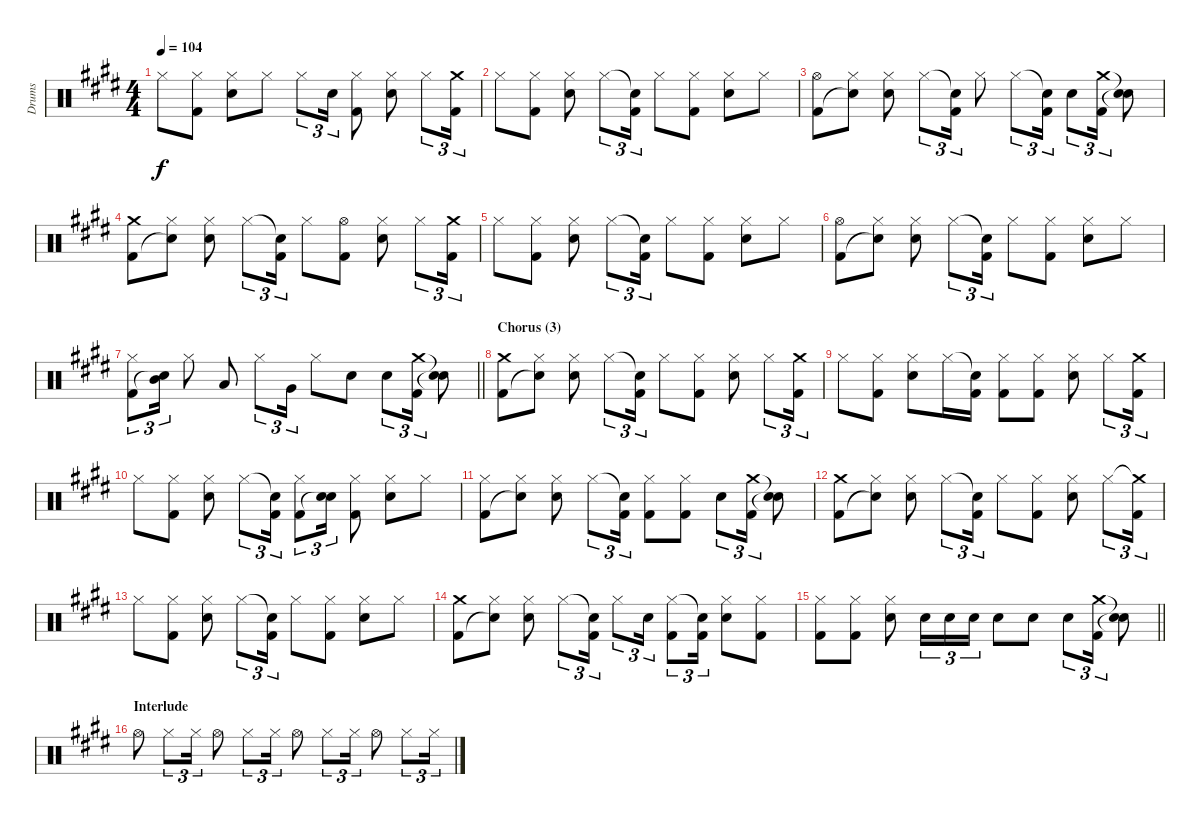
\track ("Drums" "Drums") {instrument percussion}
\staff {score}
\articulation defaults
\ts (4 4)
\tempo 104
\clef neutral
\ks c#minor "Hi-Hat (closed)".8{dy f}
("Hi-Hat (closed)" "Kick (hit) 2").8 ("Hi-Hat (closed)" "Electric Snare (hit)").8 "Hi-Hat (closed)".8 "Hi-Hat (closed)".8{tu (3 2)} "Electric Snare (hit)".16{tu (3 2)} ("Hi-Hat (closed)" "Kick (hit) 2").8 ("Hi-Hat (closed)" "Electric Snare (hit)").8 "Hi-Hat (closed)".8{tu (3 2)} ("Crash medium (hit)" "Kick (hit) 2").16{tu (3 2)} |
"Hi-Hat (closed)".8 ("Hi-Hat (closed)" "Kick (hit) 2").8 ("Hi-Hat (closed)" "Electric Snare (hit)").8 "Hi-Hat (closed)".8{tu (3 2)} ("Snare (hit)"{t} "Kick (hit) 2").16{tu (3 2)} "Hi-Hat (closed)".8 ("Hi-Hat (closed)" "Kick (hit) 2").8 ("Hi-Hat (closed)" "Electric Snare (hit)").8 "Hi-Hat (closed)".8 |
("Hi-Hat (open)" "Kick (hit) 2").8 ("Hi-Hat (closed)" "Snare (hit)"{t}).8 ("Hi-Hat (closed)" "Electric Snare (hit)").8 "Hi-Hat (closed)".8{tu (3 2)} ("Snare (hit)"{t} "Kick (hit) 2").16{tu (3 2)} "Hi-Hat (closed)".8 "Hi-Hat (closed)".8{tu (3 2)} ("Snare (hit)"{t} "Kick (hit) 2").16{tu (3 2)} "Electric Snare (hit)".8{tu (3 2)} ("Crash medium (hit)" "Kick (hit) 2").16{tu (3 2)} ("Snare (hit)"{t} "Snare (hit)"{t}).8 |
("Crash medium (hit)" "Kick (hit) 2").8 ("Hi-Hat (closed)" "Snare (hit)"{t}).8 ("Hi-Hat (closed)" "Electric Snare (hit)").8 "Hi-Hat (closed)".8{tu (3 2)} ("Snare (hit)"{t} "Kick (hit) 2").16{tu (3 2)} "Hi-Hat (closed)".8 ("Hi-Hat (open)" "Kick (hit) 2").8 ("Hi-Hat (closed)" "Electric Snare (hit)").8 "Hi-Hat (closed)".8{tu (3 2)} ("Crash medium (hit)" "Kick (hit) 2").16{tu (3 2)} |
"Hi-Hat (closed)".8 ("Hi-Hat (closed)" "Kick (hit) 2").8 ("Hi-Hat (closed)" "Electric Snare (hit)").8 "Hi-Hat (closed)".8{tu (3 2)} ("Snare (hit)"{t} "Kick (hit) 2").16{tu (3 2)} "Hi-Hat (closed)".8 ("Hi-Hat (closed)" "Kick (hit) 2").8 ("Hi-Hat (closed)" "Electric Snare (hit)").8 "Hi-Hat (closed)".8 |
("Hi-Hat (open)" "Kick (hit) 2").8 ("Hi-Hat (closed)" "Snare (hit)"{t}).8 ("Hi-Hat (closed)" "Electric Snare (hit)").8 "Hi-Hat (closed)".8{tu (3 2)} ("Snare (hit)"{t} "Kick (hit) 2").16{tu (3 2)} "Hi-Hat (closed)".8 ("Hi-Hat (closed)" "Kick (hit) 2").8 ("Hi-Hat (closed)" "Electric Snare (hit)").8 "Hi-Hat (closed)".8 |
\barLineRight lightlight
("Hi-Hat (closed)" "Kick (hit) 2").8{tu (3 2)} ("Mid Tom (hit)" "Snare (hit)"{t}).16{tu (3 2)} "Hi-Hat (closed)".8 "Low Tom (hit)".8 "Hi-Hat (closed)".8{tu (3 2)} "Very Low Tom (hit)".16{tu (3 2)} "Hi-Hat (closed)".8 "Electric Snare (hit)".8 "Electric Snare (hit)".8{tu (3 2)} ("Crash medium (hit)" "Kick (hit) 2").16{tu (3 2)} ("Snare (hit)"{t} "Snare (hit)"{t}).8 |
\section ("" "Chorus (3)")
("Crash medium (hit)" "Kick (hit) 2").8 ("Hi-Hat (closed)" "Snare (hit)"{t}).8 ("Hi-Hat (closed)" "Electric Snare (hit)").8 "Hi-Hat (closed)".8{tu (3 2)} ("Snare (hit)"{t} "Kick (hit) 2").16{tu (3 2)} "Hi-Hat (closed)".8 ("Hi-Hat (closed)" "Kick (hit) 2").8 ("Hi-Hat (closed)" "Electric Snare (hit)").8 "Hi-Hat (closed)".8{tu (3 2)} ("Crash medium (hit)" "Kick (hit) 2").16{tu (3 2)} |
"Hi-Hat (closed)".8 ("Hi-Hat (closed)" "Kick (hit) 2").8 ("Hi-Hat (closed)" "Electric Snare (hit)").8 "Hi-Hat (closed)".16 ("Snare (hit)"{t} "Kick (hit) 2").16 ("Hi-Hat (closed)" "Kick (hit) 2").8 ("Hi-Hat (closed)" "Kick (hit) 2").8 ("Hi-Hat (closed)" "Electric Snare (hit)").8 "Hi-Hat (closed)".8{tu (3 2)} ("Crash medium (hit)" "Kick (hit) 2").16{tu (3 2)} |
"Hi-Hat (closed)".8 ("Hi-Hat (closed)" "Kick (hit) 2").8 ("Hi-Hat (closed)" "Electric Snare (hit)").8 "Hi-Hat (closed)".8{tu (3 2)} ("Snare (hit)"{t} "Kick (hit) 2").16{tu (3 2)} ("Hi-Hat (closed)" "Kick (hit) 2").8{tu (3 2)} ("Electric Snare (hit)" "Snare (hit)"{t}).16{tu (3 2)} ("Hi-Hat (closed)" "Kick (hit) 2").8 ("Hi-Hat (closed)" "Electric Snare (hit)").8 "Hi-Hat (closed)".8 |
("Hi-Hat (closed)" "Kick (hit) 2").8 ("Hi-Hat (closed)" "Snare (hit)"{t}).8 ("Hi-Hat (closed)" "Electric Snare (hit)").8 "Hi-Hat (closed)".8{tu (3 2)} ("Snare (hit)"{t} "Kick (hit) 2").16{tu (3 2)} ("Hi-Hat (closed)" "Kick (hit) 2").8 ("Hi-Hat (closed)" "Kick (hit) 2").8 "Electric Snare (hit)".8{tu (3 2)} ("Crash medium (hit)" "Kick (hit) 2").16{tu (3 2)} ("Snare (hit)"{t} "Snare (hit)"{t}).8 |
("Crash medium (hit)" "Kick (hit) 2").8 ("Hi-Hat (closed)" "Snare (hit)"{t}).8 ("Hi-Hat (closed)" "Electric Snare (hit)").8 "Hi-Hat (closed)".8{tu (3 2)} ("Snare (hit)"{t} "Kick (hit) 2").16{tu (3 2)} "Hi-Hat (closed)".8 ("Hi-Hat (closed)" "Kick (hit) 2").8 ("Hi-Hat (closed)" "Electric Snare (hit)").8 "Hi-Hat (closed)".8{tu (3 2)} ("Crash medium (hit)"{t} "Kick (hit) 2").16{tu (3 2)} |
"Hi-Hat (closed)".8 ("Hi-Hat (closed)" "Kick (hit) 2").8 ("Hi-Hat (closed)" "Electric Snare (hit)").8 "Hi-Hat (closed)".8{tu (3 2)} ("Snare (hit)"{t} "Kick (hit) 2").16{tu (3 2)} "Hi-Hat (closed)".8 ("Hi-Hat (closed)" "Kick (hit) 2").8 ("Hi-Hat (closed)" "Electric Snare (hit)").8 "Hi-Hat (closed)".8 |
("Crash medium (hit)" "Kick (hit) 2").8 ("Hi-Hat (closed)" "Snare (hit)"{t}).8 ("Hi-Hat (closed)" "Electric Snare (hit)").8 "Hi-Hat (closed)".8{tu (3 2)} ("Snare (hit)"{t} "Kick (hit) 2").16{tu (3 2)} "Hi-Hat (closed)".8{tu (3 2)} "Electric Snare (hit)".16{tu (3 2)} ("Hi-Hat (closed)" "Kick (hit) 2").8{tu (3 2)} ("Snare (hit)"{t} "Kick (hit) 2").16{tu (3 2)} ("Hi-Hat (closed)" "Electric Snare (hit)").8 ("Hi-Hat (closed)" "Kick (hit) 2").8 |
\barLineRight lightlight
("Hi-Hat (closed)" "Kick (hit) 2").8 ("Hi-Hat (closed)" "Kick (hit) 2").8 ("Hi-Hat (closed)" "Electric Snare (hit)").8 "Electric Snare (hit)".16{tu (3 2)} "Electric Snare (hit)".16{tu (3 2)} "Electric Snare (hit)".16{tu (3 2)} "Electric Snare (hit)".8 "Electric Snare (hit)".8 "Electric Snare (hit)".8{tu (3 2)} ("Crash medium (hit)" "Kick (hit) 2").16{tu (3 2)} ("Snare (hit)"{t} "Snare (hit)"{t}).8 |
\section ("" "Interlude")
"Hi-Hat (open)".8 "Hi-Hat (closed)".8{tu (3 2)} "Hi-Hat (closed)".16{tu (3 2)} "Hi-Hat (open)".8 "Hi-Hat (closed)".8{tu (3 2)} "Hi-Hat (closed)".16{tu (3 2)} "Hi-Hat (open)".8 "Hi-Hat (closed)".8{tu (3 2)} "Hi-Hat (closed)".16{tu (3 2)} "Hi-Hat (open)".8 "Hi-Hat (closed)".8{tu (3 2)} "Hi-Hat (closed)".16{tu (3 2)}
